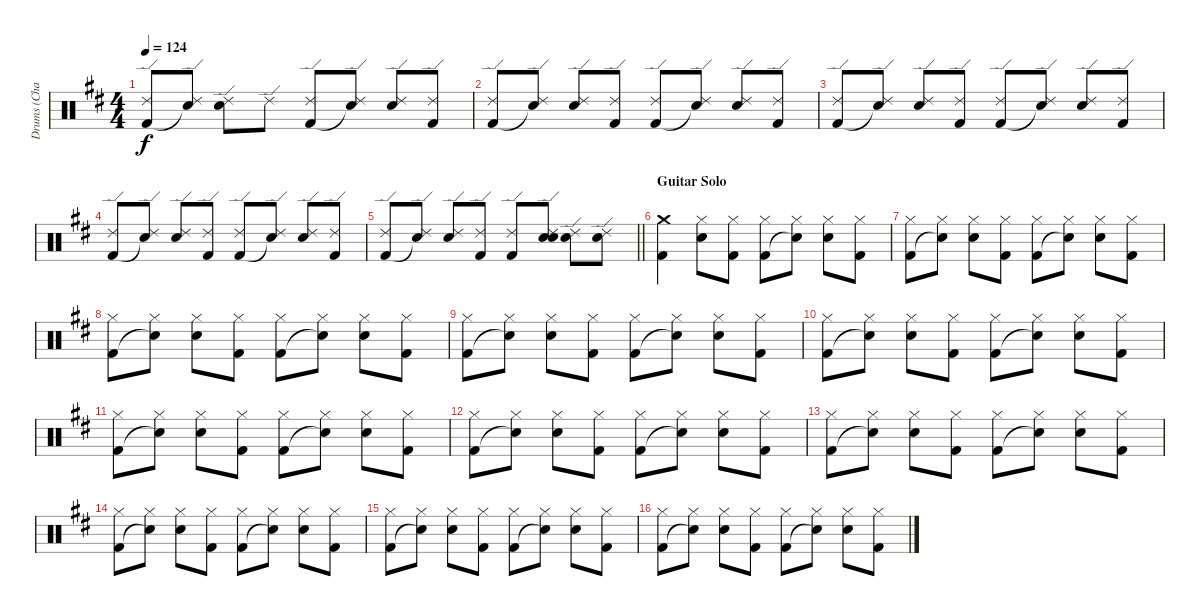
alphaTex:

\track ("Drums (Charlie)" "Drums (Cha") {instrument percussion}
\staff {score}
\articulation defaults
\ts (4 4)
\tempo 124
\clef neutral
\ks d
("Ride (edge) 2" "Kick (hit) 2").8{dy f} ("Ride (edge) 2" "Snare (hit)"{t}).8 ("Ride (edge) 2" "Snare (hit) 2").8 "Ride (edge) 2".8 ("Ride (edge) 2" "Kick (hit) 2").8 ("Ride (edge) 2" "Snare (hit)"{t}).8 ("Ride (edge) 2" "Snare (hit) 2").8 ("Ride (edge) 2" "Kick (hit) 2").8 |
("Ride (edge) 2" "Kick (hit) 2").8 ("Ride (edge) 2" "Snare (hit)"{t}).8 ("Ride (edge) 2" "Snare (hit) 2").8 ("Ride (edge) 2" "Kick (hit) 2").8 ("Ride (edge) 2" "Kick (hit) 2").8 ("Ride (edge) 2" "Snare (hit)"{t}).8 ("Ride (edge) 2" "Snare (hit) 2").8 ("Ride (edge) 2" "Kick (hit) 2").8 |
("Ride (edge) 2" "Kick (hit) 2").8 ("Ride (edge) 2" "Snare (hit)"{t}).8 ("Ride (edge) 2" "Snare (hit) 2").8 ("Ride (edge) 2" "Kick (hit) 2").8 ("Ride (edge) 2" "Kick (hit) 2").8 ("Ride (edge) 2" "Snare (hit)"{t}).8 ("Ride (edge) 2" "Snare (hit) 2").8 ("Ride (edge) 2" "Kick (hit) 2").8 |
("Ride (edge) 2" "Kick (hit) 2").8 ("Ride (edge) 2" "Snare (hit)"{t}).8 ("Ride (edge) 2" "Snare (hit) 2").8 ("Ride (edge) 2" "Kick (hit) 2").8 ("Ride (edge) 2" "Kick (hit) 2").8 ("Ride (edge) 2" "Snare (hit)"{t}).8 ("Ride (edge) 2" "Snare (hit) 2").8 ("Ride (edge) 2" "Kick (hit) 2").8 |
\barLineRight lightlight
("Ride (edge) 2" "Kick (hit) 2").8 ("Ride (edge) 2" "Snare (hit)"{t}).8 ("Ride (edge) 2" "Snare (hit) 2").8 ("Ride (edge) 2" "Kick (hit) 2").8 ("Ride (edge) 2" "Kick (hit) 2").8 ("Ride (edge) 2" "Snare (hit) 2" "Snare (hit)").8 ("Ride (edge) 2" "Snare (hit) 2").8 ("Ride (edge) 2" "Snare (hit) 2").8 |
\section ("" "Guitar Solo")
("Crash medium (hit)" "Kick (hit) 2").4 ("Hi-Hat (closed)" "Snare (hit) 2").8 ("Hi-Hat (closed)" "Kick (hit) 2").8 ("Hi-Hat (closed)" "Kick (hit) 2").8 ("Hi-Hat (closed)" "Snare (hit)"{t}).8 ("Hi-Hat (closed)" "Snare (hit) 2").8 ("Hi-Hat (closed)" "Kick (hit) 2").8 |
("Hi-Hat (closed)" "Kick (hit) 2").8 ("Hi-Hat (closed)" "Snare (hit)"{t}).8 ("Hi-Hat (closed)" "Snare (hit) 2").8 ("Hi-Hat (closed)" "Kick (hit) 2").8 ("Hi-Hat (closed)" "Kick (hit) 2").8 ("Hi-Hat (closed)" "Snare (hit)"{t}).8 ("Hi-Hat (closed)" "Snare (hit) 2").8 ("Hi-Hat (closed)" "Kick (hit) 2").8 |
("Hi-Hat (closed)" "Kick (hit) 2").8 ("Hi-Hat (closed)" "Snare (hit)"{t}).8 ("Hi-Hat (closed)" "Snare (hit) 2").8 ("Hi-Hat (closed)" "Kick (hit) 2").8 ("Hi-Hat (closed)" "Kick (hit) 2").8 ("Hi-Hat (closed)" "Snare (hit)"{t}).8 ("Hi-Hat (closed)" "Snare (hit) 2").8 ("Hi-Hat (closed)" "Kick (hit) 2").8 |
("Hi-Hat (closed)" "Kick (hit) 2").8 ("Hi-Hat (closed)" "Snare (hit)"{t}).8 ("Hi-Hat (closed)" "Snare (hit) 2").8 ("Hi-Hat (closed)" "Kick (hit) 2").8 ("Hi-Hat (closed)" "Kick (hit) 2").8 ("Hi-Hat (closed)" "Snare (hit)"{t}).8 ("Hi-Hat (closed)" "Snare (hit) 2").8 ("Hi-Hat (closed)" "Kick (hit) 2").8 |
("Hi-Hat (closed)" "Kick (hit) 2").8 ("Hi-Hat (closed)" "Snare (hit)"{t}).8 ("Hi-Hat (closed)" "Snare (hit) 2").8 ("Hi-Hat (closed)" "Kick (hit) 2").8 ("Hi-Hat (closed)" "Kick (hit) 2").8 ("Hi-Hat (closed)" "Snare (hit)"{t}).8 ("Hi-Hat (closed)" "Snare (hit) 2").8 ("Hi-Hat (closed)" "Kick (hit) 2").8 |
("Hi-Hat (closed)" "Kick (hit) 2").8 ("Hi-Hat (closed)" "Snare (hit)"{t}).8 ("Hi-Hat (closed)" "Snare (hit) 2").8 ("Hi-Hat (closed)" "Kick (hit) 2").8 ("Hi-Hat (closed)" "Kick (hit) 2").8 ("Hi-Hat (closed)" "Snare (hit)"{t}).8 ("Hi-Hat (closed)" "Snare (hit) 2").8 ("Hi-Hat (closed)" "Kick (hit) 2").8 |
("Hi-Hat (closed)" "Kick (hit) 2").8 ("Hi-Hat (closed)" "Snare (hit)"{t}).8 ("Hi-Hat (closed)" "Snare (hit) 2").8 ("Hi-Hat (closed)" "Kick (hit) 2").8 ("Hi-Hat (closed)" "Kick (hit) 2").8 ("Hi-Hat (closed)" "Snare (hit)"{t}).8 ("Hi-Hat (closed)" "Snare (hit) 2").8 ("Hi-Hat (closed)" "Kick (hit) 2").8 |
("Hi-Hat (closed)" "Kick (hit) 2").8 ("Hi-Hat (closed)" "Snare (hit)"{t}).8 ("Hi-Hat (closed)" "Snare (hit) 2").8 ("Hi-Hat (closed)" "Kick (hit) 2").8 ("Hi-Hat (closed)" "Kick (hit) 2").8 ("Hi-Hat (closed)" "Snare (hit)"{t}).8 ("Hi-Hat (closed)" "Snare (hit) 2").8 ("Hi-Hat (closed)" "Kick (hit) 2").8 |
("Hi-Hat (closed)" "Kick (hit) 2").8 ("Hi-Hat (closed)" "Snare (hit)"{t}).8 ("Hi-Hat (closed)" "Snare (hit) 2").8 ("Hi-Hat (closed)" "Kick (hit) 2").8 ("Hi-Hat (closed)" "Kick (hit) 2").8 ("Hi-Hat (closed)" "Snare (hit)"{t}).8 ("Hi-Hat (closed)" "Snare (hit) 2").8 ("Hi-Hat (closed)" "Kick (hit) 2").8 |
("Hi-Hat (closed)" "Kick (hit) 2").8 ("Hi-Hat (closed)" "Snare (hit)"{t}).8 ("Hi-Hat (closed)" "Snare (hit) 2").8 ("Hi-Hat (closed)" "Kick (hit) 2").8 ("Hi-Hat (closed)" "Kick (hit) 2").8 ("Hi-Hat (closed)" "Snare (hit)"{t}).8 ("Hi-Hat (closed)" "Snare (hit) 2").8 ("Hi-Hat (closed)" "Kick (hit) 2").8 |
("Hi-Hat (closed)" "Kick (hit) 2").8 ("Hi-Hat (closed)" "Snare (hit)"{t}).8 ("Hi-Hat (closed)" "Snare (hit) 2").8 ("Hi-Hat (closed)" "Kick (hit) 2").8 ("Hi-Hat (closed)" "Kick (hit) 2").8 ("Hi-Hat (closed)" "Snare (hit)"{t}).8 ("Hi-Hat (closed)" "Snare (hit) 2").8 ("Hi-Hat (closed)" "Kick (hit) 2").8
